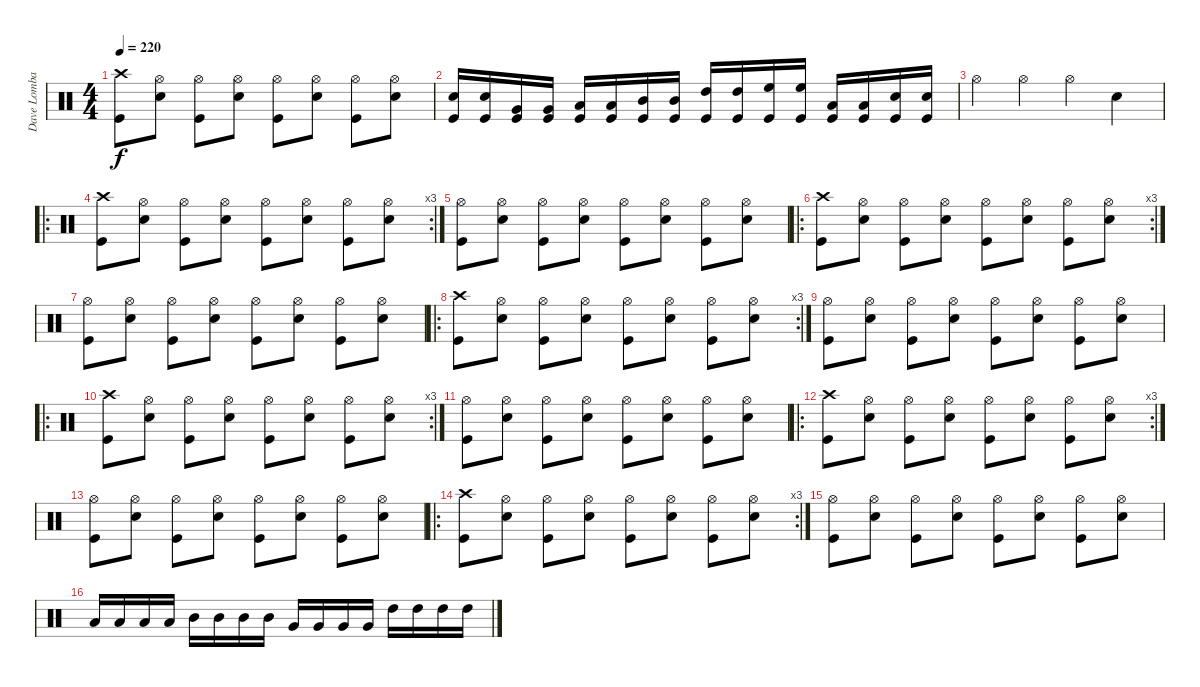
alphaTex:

\track ("Dave Lombardo" "Dave Lomba") {instrument percussion}
\staff {score}
\articulation defaults
\ts (4 4)
\tempo 220
\clef neutral
\ks c
("Crash high (hit)" "Kick (hit)").8{dy f} ("Hi-Hat (open)" "Snare (hit) 2").8 ("Hi-Hat (open)" "Kick (hit)").8 ("Hi-Hat (open)" "Snare (hit) 2").8 ("Hi-Hat (open)" "Kick (hit)").8 ("Hi-Hat (open)" "Snare (hit) 2").8 ("Hi-Hat (open)" "Kick (hit)").8 ("Hi-Hat (open)" "Snare (hit) 2").8 |
("Kick (hit)" "Snare (hit) 2").16 ("Kick (hit)" "Snare (hit) 2").16 ("Kick (hit)" "Very Low Tom (hit)").16 ("Kick (hit)" "Very Low Tom (hit)").16 ("Kick (hit)" "Low Tom (hit)").16 ("Kick (hit)" "Low Tom (hit)").16 ("Kick (hit)" "Mid Tom (hit)").16 ("Kick (hit)" "Mid Tom (hit)").16 ("Kick (hit)" "High Tom (hit)").16 ("Kick (hit)" "High Tom (hit)").16 ("Kick (hit)" "High Floor Tom (hit)").16 ("Kick (hit)" "High Floor Tom (hit)").16 ("Kick (hit)" "Low Floor Tom (hit)").16 ("Kick (hit)" "Low Floor Tom (hit)").16 ("Kick (hit)" "Snare (hit) 2").16 ("Kick (hit)" "Snare (hit) 2").16 |
"Hi-Hat (open)".4 "Hi-Hat (open)".4 "Hi-Hat (open)".4 "Snare (hit) 2".4 |
\ro
\rc 3
("Crash high (hit)" "Kick (hit)").8 ("Hi-Hat (open)" "Snare (hit) 2").8 ("Hi-Hat (open)" "Kick (hit)").8 ("Hi-Hat (open)" "Snare (hit) 2").8 ("Hi-Hat (open)" "Kick (hit)").8 ("Hi-Hat (open)" "Snare (hit) 2").8 ("Hi-Hat (open)" "Kick (hit)").8 ("Hi-Hat (open)" "Snare (hit) 2").8 |
("Hi-Hat (open)" "Kick (hit)").8 ("Hi-Hat (open)" "Snare (hit) 2").8 ("Hi-Hat (open)" "Kick (hit)").8 ("Hi-Hat (open)" "Snare (hit) 2").8 ("Hi-Hat (open)" "Kick (hit)").8 ("Hi-Hat (open)" "Snare (hit) 2").8 ("Hi-Hat (open)" "Kick (hit)").8 ("Hi-Hat (open)" "Snare (hit) 2").8 |
\ro
\rc 3
("Crash high (hit)" "Kick (hit)").8 ("Hi-Hat (open)" "Snare (hit) 2").8 ("Hi-Hat (open)" "Kick (hit)").8 ("Hi-Hat (open)" "Snare (hit) 2").8 ("Hi-Hat (open)" "Kick (hit)").8 ("Hi-Hat (open)" "Snare (hit) 2").8 ("Hi-Hat (open)" "Kick (hit)").8 ("Hi-Hat (open)" "Snare (hit) 2").8 |
("Hi-Hat (open)" "Kick (hit)").8 ("Hi-Hat (open)" "Snare (hit) 2").8 ("Hi-Hat (open)" "Kick (hit)").8 ("Hi-Hat (open)" "Snare (hit) 2").8 ("Hi-Hat (open)" "Kick (hit)").8 ("Hi-Hat (open)" "Snare (hit) 2").8 ("Hi-Hat (open)" "Kick (hit)").8 ("Hi-Hat (open)" "Snare (hit) 2").8 |
\ro
\rc 3
("Crash high (hit)" "Kick (hit)").8 ("Hi-Hat (open)" "Snare (hit) 2").8 ("Hi-Hat (open)" "Kick (hit)").8 ("Hi-Hat (open)" "Snare (hit) 2").8 ("Hi-Hat (open)" "Kick (hit)").8 ("Hi-Hat (open)" "Snare (hit) 2").8 ("Hi-Hat (open)" "Kick (hit)").8 ("Hi-Hat (open)" "Snare (hit) 2").8 |
("Hi-Hat (open)" "Kick (hit)").8 ("Hi-Hat (open)" "Snare (hit) 2").8 ("Hi-Hat (open)" "Kick (hit)").8 ("Hi-Hat (open)" "Snare (hit) 2").8 ("Hi-Hat (open)" "Kick (hit)").8 ("Hi-Hat (open)" "Snare (hit) 2").8 ("Hi-Hat (open)" "Kick (hit)").8 ("Hi-Hat (open)" "Snare (hit) 2").8 |
\ro
\rc 3
("Crash high (hit)" "Kick (hit)").8 ("Hi-Hat (open)" "Snare (hit) 2").8 ("Hi-Hat (open)" "Kick (hit)").8 ("Hi-Hat (open)" "Snare (hit) 2").8 ("Hi-Hat (open)" "Kick (hit)").8 ("Hi-Hat (open)" "Snare (hit) 2").8 ("Hi-Hat (open)" "Kick (hit)").8 ("Hi-Hat (open)" "Snare (hit) 2").8 |
("Hi-Hat (open)" "Kick (hit)").8 ("Hi-Hat (open)" "Snare (hit) 2").8 ("Hi-Hat (open)" "Kick (hit)").8 ("Hi-Hat (open)" "Snare (hit) 2").8 ("Hi-Hat (open)" "Kick (hit)").8 ("Hi-Hat (open)" "Snare (hit) 2").8 ("Hi-Hat (open)" "Kick (hit)").8 ("Hi-Hat (open)" "Snare (hit) 2").8 |
\ro
\rc 3
("Crash high (hit)" "Kick (hit)").8 ("Hi-Hat (open)" "Snare (hit) 2").8 ("Hi-Hat (open)" "Kick (hit)").8 ("Hi-Hat (open)" "Snare (hit) 2").8 ("Hi-Hat (open)" "Kick (hit)").8 ("Hi-Hat (open)" "Snare (hit) 2").8 ("Hi-Hat (open)" "Kick (hit)").8 ("Hi-Hat (open)" "Snare (hit) 2").8 |
("Hi-Hat (open)" "Kick (hit)").8 ("Hi-Hat (open)" "Snare (hit) 2").8 ("Hi-Hat (open)" "Kick (hit)").8 ("Hi-Hat (open)" "Snare (hit) 2").8 ("Hi-Hat (open)" "Kick (hit)").8 ("Hi-Hat (open)" "Snare (hit) 2").8 ("Hi-Hat (open)" "Kick (hit)").8 ("Hi-Hat (open)" "Snare (hit) 2").8 |
\ro
\rc 3
("Crash high (hit)" "Kick (hit)").8 ("Hi-Hat (open)" "Snare (hit) 2").8 ("Hi-Hat (open)" "Kick (hit)").8 ("Hi-Hat (open)" "Snare (hit) 2").8 ("Hi-Hat (open)" "Kick (hit)").8 ("Hi-Hat (open)" "Snare (hit) 2").8 ("Hi-Hat (open)" "Kick (hit)").8 ("Hi-Hat (open)" "Snare (hit) 2").8 |
("Hi-Hat (open)" "Kick (hit)").8 ("Hi-Hat (open)" "Snare (hit) 2").8 ("Hi-Hat (open)" "Kick (hit)").8 ("Hi-Hat (open)" "Snare (hit) 2").8 ("Hi-Hat (open)" "Kick (hit)").8 ("Hi-Hat (open)" "Snare (hit) 2").8 ("Hi-Hat (open)" "Kick (hit)").8 ("Hi-Hat (open)" "Snare (hit) 2").8 |
"Low Tom (hit)".16 "Low Tom (hit)".16 "Low Tom (hit)".16 "Low Tom (hit)".16 "Mid Tom (hit)".16 "Mid Tom (hit)".16 "Mid Tom (hit)".16 "Mid Tom (hit)".16 "Very Low Tom (hit)".16 "Very Low Tom (hit)".16 "Very Low Tom (hit)".16 "Very Low Tom (hit)".16 "High Tom (hit)".16 "High Tom (hit)".16 "High Tom (hit)".16 "High Tom (hit)".16
